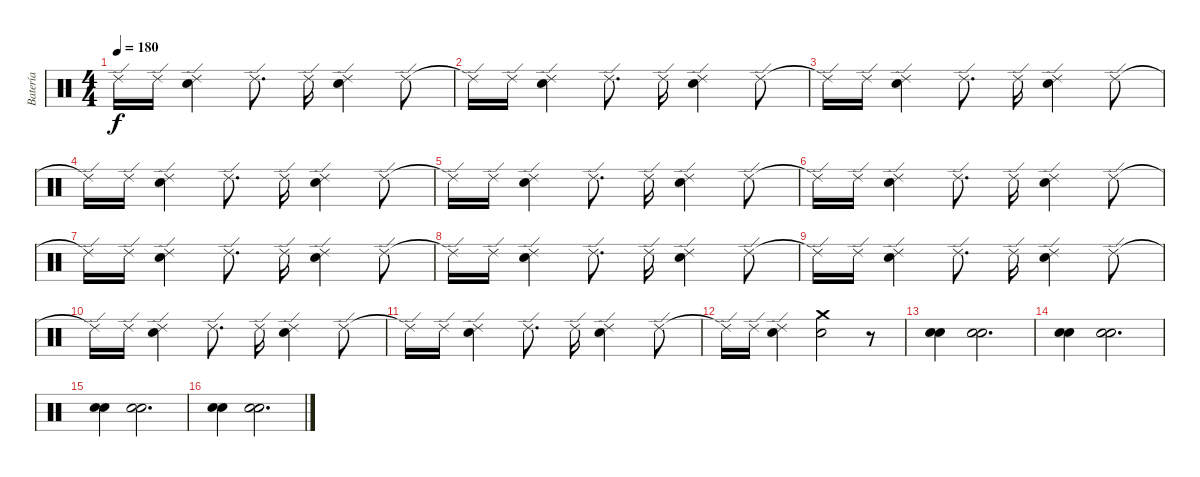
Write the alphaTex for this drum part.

\track ("Batería" "Batería") {instrument percussion}
\staff {score}
\articulation defaults
\ts (4 4)
\tempo 180
\clef neutral
\ks c "Ride (edge) 2"{t}.16{dy f} "Ride (edge) 2".16
("Ride (edge) 2" "Snare (hit) 2").4 "Ride (edge) 2".8{d} "Ride (edge) 2".16 ("Ride (edge) 2" "Snare (hit) 2").4 "Ride (edge) 2".8 |
"Ride (edge) 2"{t}.16 "Ride (edge) 2".16 ("Ride (edge) 2" "Snare (hit) 2").4 "Ride (edge) 2".8{d} "Ride (edge) 2".16 ("Ride (edge) 2" "Snare (hit) 2").4 "Ride (edge) 2".8 |
"Ride (edge) 2"{t}.16 "Ride (edge) 2".16 ("Ride (edge) 2" "Snare (hit) 2").4 "Ride (edge) 2".8{d} "Ride (edge) 2".16 ("Ride (edge) 2" "Snare (hit) 2").4 "Ride (edge) 2".8 |
"Ride (edge) 2"{t}.16 "Ride (edge) 2".16 ("Ride (edge) 2" "Snare (hit) 2").4 "Ride (edge) 2".8{d} "Ride (edge) 2".16 ("Ride (edge) 2" "Snare (hit) 2").4 "Ride (edge) 2".8 |
"Ride (edge) 2"{t}.16 "Ride (edge) 2".16 ("Ride (edge) 2" "Snare (hit) 2").4 "Ride (edge) 2".8{d} "Ride (edge) 2".16 ("Ride (edge) 2" "Snare (hit) 2").4 "Ride (edge) 2".8 |
"Ride (edge) 2"{t}.16 "Ride (edge) 2".16 ("Ride (edge) 2" "Snare (hit) 2").4 "Ride (edge) 2".8{d} "Ride (edge) 2".16 ("Ride (edge) 2" "Snare (hit) 2").4 "Ride (edge) 2".8 |
"Ride (edge) 2"{t}.16 "Ride (edge) 2".16 ("Ride (edge) 2" "Snare (hit) 2").4 "Ride (edge) 2".8{d} "Ride (edge) 2".16 ("Ride (edge) 2" "Snare (hit) 2").4 "Ride (edge) 2".8 |
"Ride (edge) 2"{t}.16 "Ride (edge) 2".16 ("Ride (edge) 2" "Snare (hit) 2").4 "Ride (edge) 2".8{d} "Ride (edge) 2".16 ("Ride (edge) 2" "Snare (hit) 2").4 "Ride (edge) 2".8 |
"Ride (edge) 2"{t}.16 "Ride (edge) 2".16 ("Ride (edge) 2" "Snare (hit) 2").4 "Ride (edge) 2".8{d} "Ride (edge) 2".16 ("Ride (edge) 2" "Snare (hit) 2").4 "Ride (edge) 2".8 |
"Ride (edge) 2"{t}.16 "Ride (edge) 2".16 ("Ride (edge) 2" "Snare (hit) 2").4 "Ride (edge) 2".8{d} "Ride (edge) 2".16 ("Ride (edge) 2" "Snare (hit) 2").4 "Ride (edge) 2".8 |
"Ride (edge) 2"{t}.16 "Ride (edge) 2".16 ("Ride (edge) 2" "Snare (hit) 2").4 "Ride (edge) 2".8{d} "Ride (edge) 2".16 ("Ride (edge) 2" "Snare (hit) 2").4 "Ride (edge) 2".8 |
"Ride (edge) 2"{t}.16 "Ride (edge) 2".16 ("Ride (edge) 2" "Snare (hit) 2").4 ("Crash medium (hit)" "Snare (hit) 2").2 r.8 |
("Snare (hit) 2" "Snare (hit) 2").4 ("Snare (hit) 2" "Snare (hit) 2").2{d} |
("Snare (hit) 2" "Snare (hit) 2").4 ("Snare (hit) 2" "Snare (hit) 2").2{d} |
("Snare (hit) 2" "Snare (hit) 2").4 ("Snare (hit) 2" "Snare (hit) 2").2{d} |
("Snare (hit) 2" "Snare (hit) 2").4 ("Snare (hit) 2" "Snare (hit) 2").2{d}
